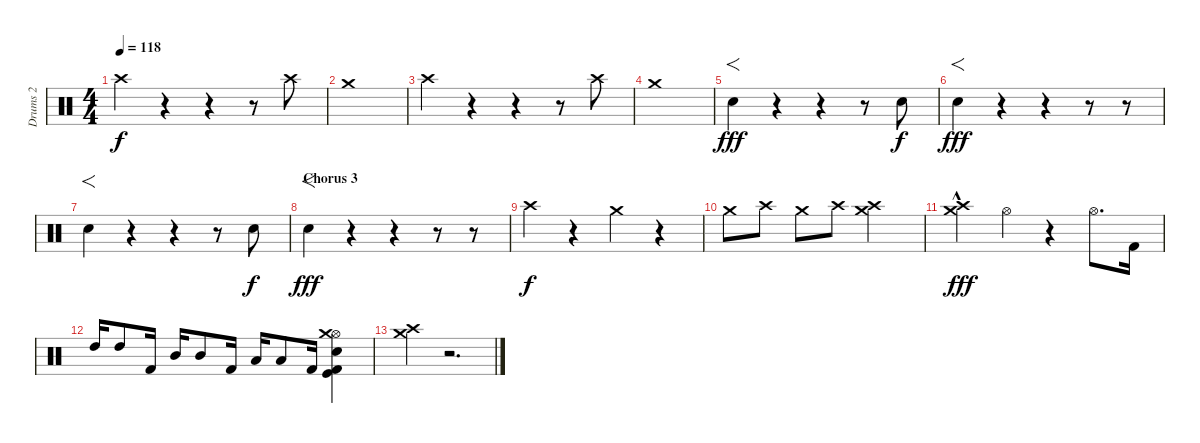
\track ("Drums 2" "Drums 2") {instrument percussion}
\staff {score}
\articulation defaults
\ts (4 4)
\tempo 118
\clef neutral
\ks c "Crash high (hit)".4{dy f}
r.4 r.4 r.8 "Crash high (hit)".8 |
"Crash medium (hit)".1 |
"Crash high (hit)".4 r.4 r.4 r.8 "Crash high (hit)".8 |
"Crash medium (hit)".1 |
"Electric Snare (hit)"{tr (40 64)}.4{f dy fff} r.4 r.4 r.8 "Electric Snare (hit)".8{dy f} |
"Electric Snare (hit)"{tr (40 64)}.4{f dy fff} r.4 r.4 r.8 r.8 |
"Electric Snare (hit)"{tr (40 64)}.4{f} r.4 r.4 r.8 "Electric Snare (hit)".8{dy f} |
\section ("" "Chorus 3")
"Electric Snare (hit)"{tr (40 64)}.4{f dy fff} r.4 r.4 r.8 r.8 |
"Crash high (hit)".4{dy f} r.4 "Crash medium (hit)".4 r.4 |
"Crash medium (hit)".8 "Crash high (hit)".8 "Crash medium (hit)".8 "Crash high (hit)".8 ("Crash high (hit)" "Crash medium (hit)").2 |
("Crash high (hit)" "Crash medium (hit)"{hac}).4{dy fff} "Hi-Hat (open)".4 r.4 "Hi-Hat (open)".8{d} "Kick (hit) 2".16 |
"High Tom (hit)".16 "High Tom (hit)".8 "Kick (hit) 2".16 "Mid Tom (hit)".16 "Mid Tom (hit)".8 "Kick (hit) 2".16 "Low Tom (hit)".16 "Low Tom (hit)".8 "Kick (hit) 2".16 ("Hi-Hat (open)" "Electric Snare (hit)" "Crash medium (hit)" "Kick (hit)" "Kick (hit) 2").4 |
("Crash medium (hit)" "Crash high (hit)").4 r.2{d}
